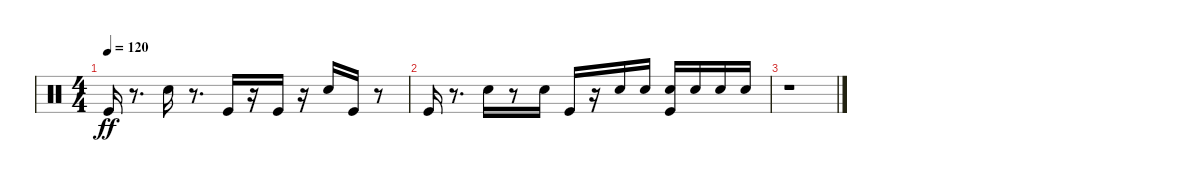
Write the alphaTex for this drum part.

\track "" {instrument percussion}
\staff {score}
\articulation defaults
\ts (4 4)
\tempo 120
\clef neutral
\ks c "Kick (hit)".16{dy ff}
r.8{d} "Electric Snare (hit)".16 r.8{d} "Kick (hit)".16 r.16 "Kick (hit)".16 r.16 "Electric Snare (hit)".16 "Kick (hit)".16 r.8 |
"Kick (hit)".16 r.8{d} "Electric Snare (hit)".16 r.8 "Electric Snare (hit)".16 "Kick (hit)".16 r.16 "Electric Snare (hit)".16 "Electric Snare (hit)".16 ("Kick (hit)" "Electric Snare (hit)").16 "Electric Snare (hit)".16 "Electric Snare (hit)".16 "Electric Snare (hit)".16 |
r.1
